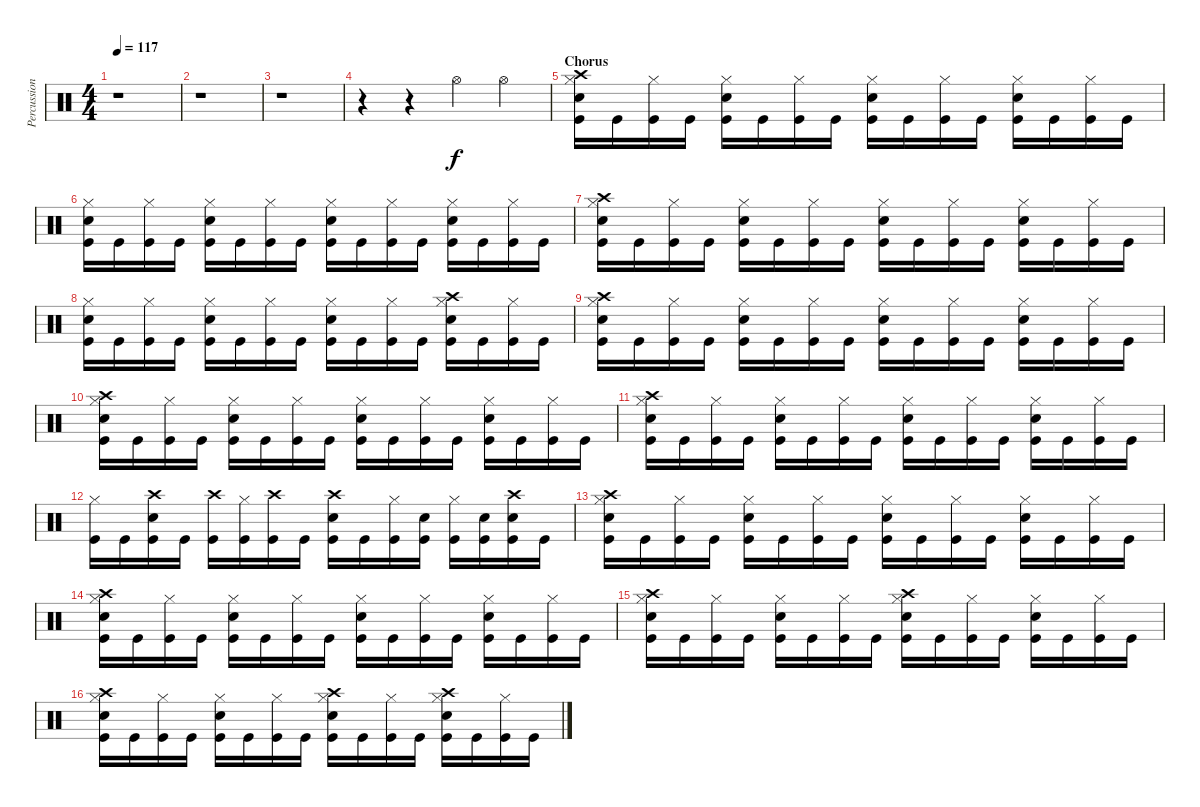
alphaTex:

\track ("Percussion" "Percussion") {instrument percussion}
\staff {score}
\articulation defaults
\ts (4 4)
\tempo 117
\clef neutral
\ks c
r.1{dy mp} |
r.1 |
r.1 |
r.4 r.4 "Hi-Hat (open)".4{dy f} "Hi-Hat (open)".4 |
\section ("" "Chorus")
("Crash high (hit)" "Hi-Hat (closed)" "Snare (hit) 2" "Kick (hit)").16 "Kick (hit)".16 ("Hi-Hat (closed)" "Kick (hit)").16 "Kick (hit)".16 ("Hi-Hat (closed)" "Snare (hit) 2" "Kick (hit)").16 "Kick (hit)".16 ("Hi-Hat (closed)" "Kick (hit)").16 "Kick (hit)".16 ("Hi-Hat (closed)" "Snare (hit) 2" "Kick (hit)").16 "Kick (hit)".16 ("Hi-Hat (closed)" "Kick (hit)").16 "Kick (hit)".16 ("Hi-Hat (closed)" "Snare (hit) 2" "Kick (hit)").16 "Kick (hit)".16 ("Hi-Hat (closed)" "Kick (hit)").16 "Kick (hit)".16 |
("Hi-Hat (closed)" "Snare (hit) 2" "Kick (hit)").16 "Kick (hit)".16 ("Hi-Hat (closed)" "Kick (hit)").16 "Kick (hit)".16 ("Hi-Hat (closed)" "Snare (hit) 2" "Kick (hit)").16 "Kick (hit)".16 ("Hi-Hat (closed)" "Kick (hit)").16 "Kick (hit)".16 ("Hi-Hat (closed)" "Snare (hit) 2" "Kick (hit)").16 "Kick (hit)".16 ("Hi-Hat (closed)" "Kick (hit)").16 "Kick (hit)".16 ("Hi-Hat (closed)" "Snare (hit) 2" "Kick (hit)").16 "Kick (hit)".16 ("Hi-Hat (closed)" "Kick (hit)").16 "Kick (hit)".16 |
("Crash high (hit)" "Hi-Hat (closed)" "Snare (hit) 2" "Kick (hit)").16 "Kick (hit)".16 ("Hi-Hat (closed)" "Kick (hit)").16 "Kick (hit)".16 ("Hi-Hat (closed)" "Snare (hit) 2" "Kick (hit)").16 "Kick (hit)".16 ("Hi-Hat (closed)" "Kick (hit)").16 "Kick (hit)".16 ("Hi-Hat (closed)" "Snare (hit) 2" "Kick (hit)").16 "Kick (hit)".16 ("Hi-Hat (closed)" "Kick (hit)").16 "Kick (hit)".16 ("Hi-Hat (closed)" "Snare (hit) 2" "Kick (hit)").16 "Kick (hit)".16 ("Hi-Hat (closed)" "Kick (hit)").16 "Kick (hit)".16 |
("Hi-Hat (closed)" "Snare (hit) 2" "Kick (hit)").16 "Kick (hit)".16 ("Hi-Hat (closed)" "Kick (hit)").16 "Kick (hit)".16 ("Hi-Hat (closed)" "Snare (hit) 2" "Kick (hit)").16 "Kick (hit)".16 ("Hi-Hat (closed)" "Kick (hit)").16 "Kick (hit)".16 ("Hi-Hat (closed)" "Snare (hit) 2" "Kick (hit)").16 "Kick (hit)".16 ("Hi-Hat (closed)" "Kick (hit)").16 "Kick (hit)".16 ("Crash high (hit)" "Hi-Hat (closed)" "Snare (hit) 2" "Kick (hit)").16 "Kick (hit)".16 ("Hi-Hat (closed)" "Kick (hit)").16 "Kick (hit)".16 |
("Crash high (hit)" "Hi-Hat (closed)" "Snare (hit) 2" "Kick (hit)").16 "Kick (hit)".16 ("Hi-Hat (closed)" "Kick (hit)").16 "Kick (hit)".16 ("Hi-Hat (closed)" "Snare (hit) 2" "Kick (hit)").16 "Kick (hit)".16 ("Hi-Hat (closed)" "Kick (hit)").16 "Kick (hit)".16 ("Hi-Hat (closed)" "Snare (hit) 2" "Kick (hit)").16 "Kick (hit)".16 ("Hi-Hat (closed)" "Kick (hit)").16 "Kick (hit)".16 ("Hi-Hat (closed)" "Snare (hit) 2" "Kick (hit)").16 "Kick (hit)".16 ("Hi-Hat (closed)" "Kick (hit)").16 "Kick (hit)".16 |
("Crash high (hit)" "Hi-Hat (closed)" "Snare (hit) 2" "Kick (hit)").16 "Kick (hit)".16 ("Hi-Hat (closed)" "Kick (hit)").16 "Kick (hit)".16 ("Hi-Hat (closed)" "Snare (hit) 2" "Kick (hit)").16 "Kick (hit)".16 ("Hi-Hat (closed)" "Kick (hit)").16 "Kick (hit)".16 ("Hi-Hat (closed)" "Snare (hit) 2" "Kick (hit)").16 "Kick (hit)".16 ("Hi-Hat (closed)" "Kick (hit)").16 "Kick (hit)".16 ("Hi-Hat (closed)" "Snare (hit) 2" "Kick (hit)").16 "Kick (hit)".16 ("Hi-Hat (closed)" "Kick (hit)").16 "Kick (hit)".16 |
("Crash high (hit)" "Hi-Hat (closed)" "Snare (hit) 2" "Kick (hit)").16 "Kick (hit)".16 ("Hi-Hat (closed)" "Kick (hit)").16 "Kick (hit)".16 ("Hi-Hat (closed)" "Snare (hit) 2" "Kick (hit)").16 "Kick (hit)".16 ("Hi-Hat (closed)" "Kick (hit)").16 "Kick (hit)".16 ("Hi-Hat (closed)" "Snare (hit) 2" "Kick (hit)").16 "Kick (hit)".16 ("Hi-Hat (closed)" "Kick (hit)").16 "Kick (hit)".16 ("Hi-Hat (closed)" "Snare (hit) 2" "Kick (hit)").16 "Kick (hit)".16 ("Hi-Hat (closed)" "Kick (hit)").16 "Kick (hit)".16 |
("Hi-Hat (closed)" "Kick (hit)").16 "Kick (hit)".16 ("Crash high (hit)" "Snare (hit) 2" "Kick (hit)").16 "Kick (hit)".16 ("Crash high (hit)" "Kick (hit)").16 ("Hi-Hat (closed)" "Kick (hit)").16 ("Crash high (hit)" "Kick (hit)").16 "Kick (hit)".16 ("Crash high (hit)" "Snare (hit) 2" "Kick (hit)").16 "Kick (hit)".16 ("Hi-Hat (closed)" "Kick (hit)").16 ("Snare (hit) 2" "Kick (hit)").16 ("Hi-Hat (closed)" "Kick (hit)").16 ("Snare (hit) 2" "Kick (hit)").16 ("Crash high (hit)" "Snare (hit) 2" "Kick (hit)").16 "Kick (hit)".16 |
("Crash high (hit)" "Hi-Hat (closed)" "Snare (hit) 2" "Kick (hit)").16 "Kick (hit)".16 ("Hi-Hat (closed)" "Kick (hit)").16 "Kick (hit)".16 ("Hi-Hat (closed)" "Snare (hit) 2" "Kick (hit)").16 "Kick (hit)".16 ("Hi-Hat (closed)" "Kick (hit)").16 "Kick (hit)".16 ("Hi-Hat (closed)" "Snare (hit) 2" "Kick (hit)").16 "Kick (hit)".16 ("Hi-Hat (closed)" "Kick (hit)").16 "Kick (hit)".16 ("Hi-Hat (closed)" "Snare (hit) 2" "Kick (hit)").16 "Kick (hit)".16 ("Hi-Hat (closed)" "Kick (hit)").16 "Kick (hit)".16 |
("Crash high (hit)" "Hi-Hat (closed)" "Snare (hit) 2" "Kick (hit)").16 "Kick (hit)".16 ("Hi-Hat (closed)" "Kick (hit)").16 "Kick (hit)".16 ("Hi-Hat (closed)" "Snare (hit) 2" "Kick (hit)").16 "Kick (hit)".16 ("Hi-Hat (closed)" "Kick (hit)").16 "Kick (hit)".16 ("Hi-Hat (closed)" "Snare (hit) 2" "Kick (hit)").16 "Kick (hit)".16 ("Hi-Hat (closed)" "Kick (hit)").16 "Kick (hit)".16 ("Hi-Hat (closed)" "Snare (hit) 2" "Kick (hit)").16 "Kick (hit)".16 ("Hi-Hat (closed)" "Kick (hit)").16 "Kick (hit)".16 |
("Crash high (hit)" "Hi-Hat (closed)" "Snare (hit) 2" "Kick (hit)").16 "Kick (hit)".16 ("Hi-Hat (closed)" "Kick (hit)").16 "Kick (hit)".16 ("Hi-Hat (closed)" "Snare (hit) 2" "Kick (hit)").16 "Kick (hit)".16 ("Hi-Hat (closed)" "Kick (hit)").16 "Kick (hit)".16 ("Crash high (hit)" "Hi-Hat (closed)" "Snare (hit) 2" "Kick (hit)").16 "Kick (hit)".16 ("Hi-Hat (closed)" "Kick (hit)").16 "Kick (hit)".16 ("Hi-Hat (closed)" "Snare (hit) 2" "Kick (hit)").16 "Kick (hit)".16 ("Hi-Hat (closed)" "Kick (hit)").16 "Kick (hit)".16 |
("Crash high (hit)" "Hi-Hat (closed)" "Snare (hit) 2" "Kick (hit)").16 "Kick (hit)".16 ("Hi-Hat (closed)" "Kick (hit)").16 "Kick (hit)".16 ("Hi-Hat (closed)" "Snare (hit) 2" "Kick (hit)").16 "Kick (hit)".16 ("Hi-Hat (closed)" "Kick (hit)").16 "Kick (hit)".16 ("Crash high (hit)" "Hi-Hat (closed)" "Snare (hit) 2" "Kick (hit)").16 "Kick (hit)".16 ("Hi-Hat (closed)" "Kick (hit)").16 "Kick (hit)".16 ("Crash high (hit)" "Hi-Hat (closed)" "Snare (hit) 2" "Kick (hit)").16 "Kick (hit)".16 ("Hi-Hat (closed)" "Kick (hit)").16 "Kick (hit)".16
